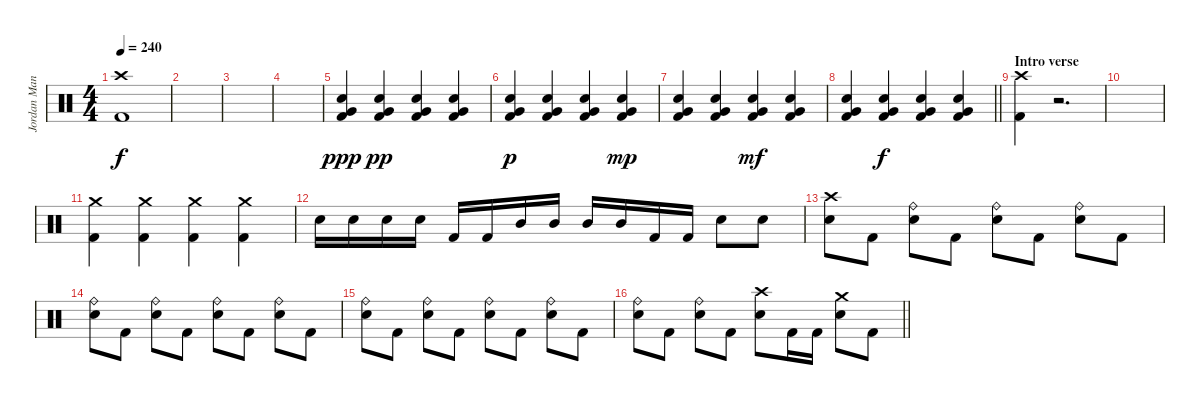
\track ("Jordan Mancino" "Jordan Man") {instrument percussion}
\staff {score}
\articulation defaults
\ts (4 4)
\tempo 240
\clef neutral
\ks c
("Crash high (hit)" "Kick (hit) 2").1{dy f} |
|
|
|
("Electric Snare (hit)" "Very Low Tom (hit)" "Kick (hit) 2").4{dy ppp} ("Electric Snare (hit)" "Very Low Tom (hit)" "Kick (hit) 2").4{dy pp} ("Electric Snare (hit)" "Very Low Tom (hit)" "Kick (hit) 2").4 ("Electric Snare (hit)" "Very Low Tom (hit)" "Kick (hit) 2").4 |
("Electric Snare (hit)" "Very Low Tom (hit)" "Kick (hit) 2").4{dy p} ("Electric Snare (hit)" "Very Low Tom (hit)" "Kick (hit) 2").4 ("Electric Snare (hit)" "Very Low Tom (hit)" "Kick (hit) 2").4 ("Electric Snare (hit)" "Very Low Tom (hit)" "Kick (hit) 2").4{dy mp} |
("Electric Snare (hit)" "Very Low Tom (hit)" "Kick (hit) 2").4 ("Electric Snare (hit)" "Very Low Tom (hit)" "Kick (hit) 2").4 ("Electric Snare (hit)" "Very Low Tom (hit)" "Kick (hit) 2").4{dy mf} ("Electric Snare (hit)" "Very Low Tom (hit)" "Kick (hit) 2").4 |
\barLineRight lightlight
("Electric Snare (hit)" "Very Low Tom (hit)" "Kick (hit) 2").4 ("Electric Snare (hit)" "Very Low Tom (hit)" "Kick (hit) 2").4{dy f} ("Electric Snare (hit)" "Very Low Tom (hit)" "Kick (hit) 2").4 ("Electric Snare (hit)" "Very Low Tom (hit)" "Kick (hit) 2").4 |
\section ("" "Intro verse")
("Crash high (hit)" "Kick (hit) 2").4 r.2{d volume 0} |
|
("Crash medium (hit)" "Kick (hit) 2").4{volume 16} ("Crash medium (hit)" "Kick (hit) 2").4 ("Crash medium (hit)" "Kick (hit) 2").4 ("Crash medium (hit)" "Kick (hit) 2").4 |
"Electric Snare (hit)".16 "Electric Snare (hit)".16 "Electric Snare (hit)".16 "Electric Snare (hit)".16 "Kick (hit) 2".16 "Kick (hit) 2".16 "Mid Tom (hit)".16 "Mid Tom (hit)".16 "Mid Tom (hit)".16 "Mid Tom (hit)".16 "Kick (hit) 2".16 "Kick (hit) 2".16 "Electric Snare (hit)".8 "Electric Snare (hit)".8 |
("Crash high (hit)" "Electric Snare (hit)").8 "Kick (hit) 2".8 ("Ride (bell)" "Electric Snare (hit)").8 "Kick (hit) 2".8 ("Ride (bell)" "Electric Snare (hit)").8 "Kick (hit) 2".8 ("Ride (bell)" "Electric Snare (hit)").8 "Kick (hit) 2".8 |
("Ride (bell)" "Electric Snare (hit)").8 "Kick (hit) 2".8 ("Ride (bell)" "Electric Snare (hit)").8 "Kick (hit) 2".8 ("Ride (bell)" "Electric Snare (hit)").8 "Kick (hit) 2".8 ("Ride (bell)" "Electric Snare (hit)").8 "Kick (hit) 2".8 |
("Ride (bell)" "Electric Snare (hit)").8 "Kick (hit) 2".8 ("Ride (bell)" "Electric Snare (hit)").8 "Kick (hit) 2".8 ("Ride (bell)" "Electric Snare (hit)").8 "Kick (hit) 2".8 ("Ride (bell)" "Electric Snare (hit)").8 "Kick (hit) 2".8 |
\barLineRight lightlight
("Ride (bell)" "Electric Snare (hit)").8 "Kick (hit) 2".8 ("Ride (bell)" "Electric Snare (hit)").8 "Kick (hit) 2".8 ("Crash high (hit)" "Electric Snare (hit)").8 "Kick (hit) 2".16 "Kick (hit) 2".16 ("Crash medium (hit)" "Electric Snare (hit)").8 "Kick (hit) 2".8
